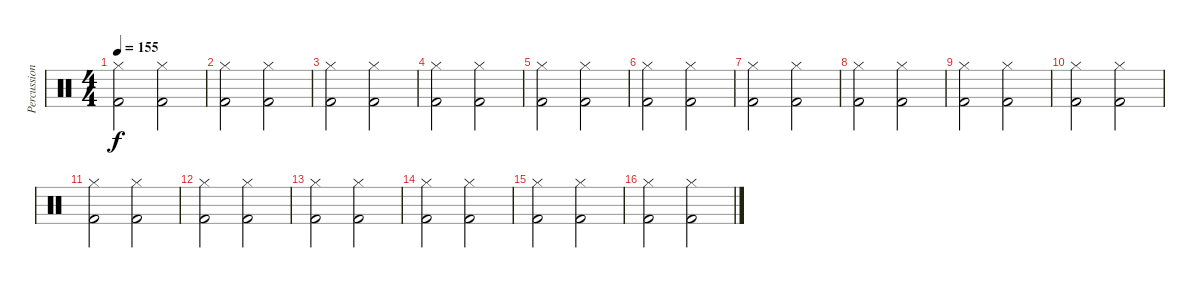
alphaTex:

\track ("Percussion" "Percussion") {instrument percussion}
\staff {score}
\articulation defaults
\ts (4 4)
\tempo 155
\clef neutral
\ks c
("Kick (hit) 2" "Hi-Hat (closed)").2{dy f} ("Kick (hit) 2" "Hi-Hat (closed)").2 |
("Kick (hit) 2" "Hi-Hat (closed)").2 ("Kick (hit) 2" "Hi-Hat (closed)").2 |
("Kick (hit) 2" "Hi-Hat (closed)").2 ("Kick (hit) 2" "Hi-Hat (closed)").2 |
("Kick (hit) 2" "Hi-Hat (closed)").2 ("Kick (hit) 2" "Hi-Hat (closed)").2 |
("Kick (hit) 2" "Hi-Hat (closed)").2 ("Kick (hit) 2" "Hi-Hat (closed)").2 |
("Kick (hit) 2" "Hi-Hat (closed)").2 ("Kick (hit) 2" "Hi-Hat (closed)").2 |
("Kick (hit) 2" "Hi-Hat (closed)").2 ("Kick (hit) 2" "Hi-Hat (closed)").2 |
("Kick (hit) 2" "Hi-Hat (closed)").2 ("Kick (hit) 2" "Hi-Hat (closed)").2 |
("Kick (hit) 2" "Hi-Hat (closed)").2 ("Kick (hit) 2" "Hi-Hat (closed)").2 |
("Kick (hit) 2" "Hi-Hat (closed)").2 ("Kick (hit) 2" "Hi-Hat (closed)").2 |
("Kick (hit) 2" "Hi-Hat (closed)").2 ("Kick (hit) 2" "Hi-Hat (closed)").2 |
("Kick (hit) 2" "Hi-Hat (closed)").2 ("Kick (hit) 2" "Hi-Hat (closed)").2 |
("Kick (hit) 2" "Hi-Hat (closed)").2 ("Kick (hit) 2" "Hi-Hat (closed)").2 |
("Kick (hit) 2" "Hi-Hat (closed)").2 ("Kick (hit) 2" "Hi-Hat (closed)").2 |
("Kick (hit) 2" "Hi-Hat (closed)").2 ("Kick (hit) 2" "Hi-Hat (closed)").2 |
("Kick (hit) 2" "Hi-Hat (closed)").2 ("Kick (hit) 2" "Hi-Hat (closed)").2
